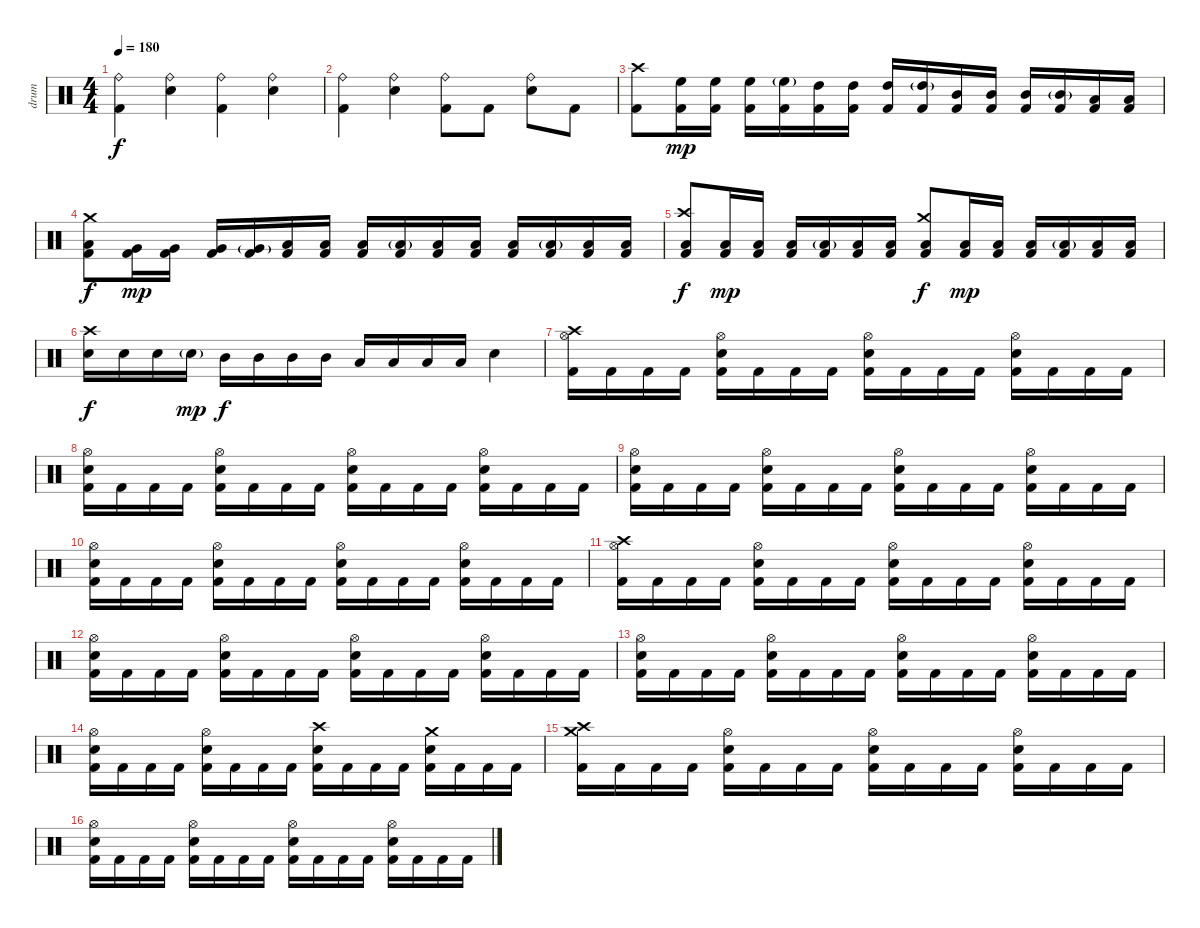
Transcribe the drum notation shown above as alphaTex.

\track ("drum" "drum") {instrument percussion}
\staff {score}
\articulation defaults
\ts (4 4)
\tempo 180
\clef neutral
\ks c
("Ride (bell)" "Kick (hit) 2").4{dy f} ("Ride (bell)" "Electric Snare (hit)").4 ("Ride (bell)" "Kick (hit) 2").4 ("Ride (bell)" "Electric Snare (hit)").4 |
("Ride (bell)" "Kick (hit) 2").4 ("Ride (bell)" "Electric Snare (hit)").4 ("Ride (bell)" "Kick (hit) 2").8 "Kick (hit) 2".8 ("Ride (bell)" "Electric Snare (hit)").8 "Kick (hit) 2".8 |
("Crash high (hit)" "Kick (hit) 2").8 ("High Floor Tom (hit)" "Kick (hit) 2").16{dy mp} ("High Floor Tom (hit)" "Kick (hit) 2").16 ("High Floor Tom (hit)" "Kick (hit) 2").16 ("High Floor Tom (hit)"{g} "Kick (hit) 2").16 ("High Tom (hit)" "Kick (hit) 2").16 ("High Tom (hit)" "Kick (hit) 2").16 ("High Tom (hit)" "Kick (hit) 2").16 ("High Tom (hit)"{g} "Kick (hit) 2").16 ("Mid Tom (hit)" "Kick (hit) 2").16 ("Mid Tom (hit)" "Kick (hit) 2").16 ("Mid Tom (hit)" "Kick (hit) 2").16 ("Mid Tom (hit)"{g} "Kick (hit) 2").16 ("Low Tom (hit)" "Kick (hit) 2").16 ("Low Tom (hit)" "Kick (hit) 2").16 |
("Crash medium (hit)" "Low Tom (hit)" "Kick (hit) 2").8{dy f} ("Very Low Tom (hit)" "Kick (hit) 2").16{dy mp} ("Very Low Tom (hit)" "Kick (hit) 2").16 ("Very Low Tom (hit)" "Kick (hit) 2").16 ("Very Low Tom (hit)"{g} "Kick (hit) 2").16 ("Low Floor Tom (hit)" "Kick (hit) 2").16 ("Low Floor Tom (hit)" "Kick (hit) 2").16 ("Low Floor Tom (hit)" "Kick (hit) 2").16 ("Low Floor Tom (hit)"{g} "Kick (hit) 2").16 ("Low Floor Tom (hit)" "Kick (hit) 2").16 ("Low Floor Tom (hit)" "Kick (hit) 2").16 ("Low Floor Tom (hit)" "Kick (hit) 2").16 ("Low Floor Tom (hit)"{g} "Kick (hit) 2").16 ("Low Floor Tom (hit)" "Kick (hit) 2").16 ("Low Floor Tom (hit)" "Kick (hit) 2").16 |
("Crash high (hit)" "Low Floor Tom (hit)" "Kick (hit) 2").8{dy f} ("Low Floor Tom (hit)" "Kick (hit) 2").16{dy mp} ("Low Floor Tom (hit)" "Kick (hit) 2").16 ("Low Floor Tom (hit)" "Kick (hit) 2").16 ("Low Floor Tom (hit)"{g} "Kick (hit) 2").16 ("Low Floor Tom (hit)" "Kick (hit) 2").16 ("Low Floor Tom (hit)" "Kick (hit) 2").16 ("Crash medium (hit)" "Low Floor Tom (hit)" "Kick (hit) 2").8{dy f} ("Low Floor Tom (hit)" "Kick (hit) 2").16{dy mp} ("Low Floor Tom (hit)" "Kick (hit) 2").16 ("Low Floor Tom (hit)" "Kick (hit) 2").16 ("Low Floor Tom (hit)"{g} "Kick (hit) 2").16 ("Low Floor Tom (hit)" "Kick (hit) 2").16 ("Low Floor Tom (hit)" "Kick (hit) 2").16 |
("Crash high (hit)" "Electric Snare (hit)").16{dy f} "Electric Snare (hit)".16 "Electric Snare (hit)".16 "Electric Snare (hit)"{g}.16{dy mp} "Mid Tom (hit)".16{dy f} "Mid Tom (hit)".16 "Mid Tom (hit)".16 "Mid Tom (hit)".16 "Low Tom (hit)".16 "Low Tom (hit)".16 "Low Tom (hit)".16 "Low Tom (hit)".16 "Electric Snare (hit)".4 |
("Hi-Hat (open)" "Crash high (hit)" "Kick (hit) 2").16 "Kick (hit) 2".16 "Kick (hit) 2".16 "Kick (hit) 2".16 ("Hi-Hat (open)" "Electric Snare (hit)" "Kick (hit) 2").16 "Kick (hit) 2".16 "Kick (hit) 2".16 "Kick (hit) 2".16 ("Hi-Hat (open)" "Electric Snare (hit)" "Kick (hit) 2").16 "Kick (hit) 2".16 "Kick (hit) 2".16 "Kick (hit) 2".16 ("Hi-Hat (open)" "Electric Snare (hit)" "Kick (hit) 2").16 "Kick (hit) 2".16 "Kick (hit) 2".16 "Kick (hit) 2".16 |
("Hi-Hat (open)" "Electric Snare (hit)" "Kick (hit) 2").16 "Kick (hit) 2".16 "Kick (hit) 2".16 "Kick (hit) 2".16 ("Hi-Hat (open)" "Electric Snare (hit)" "Kick (hit) 2").16 "Kick (hit) 2".16 "Kick (hit) 2".16 "Kick (hit) 2".16 ("Hi-Hat (open)" "Electric Snare (hit)" "Kick (hit) 2").16 "Kick (hit) 2".16 "Kick (hit) 2".16 "Kick (hit) 2".16 ("Hi-Hat (open)" "Electric Snare (hit)" "Kick (hit) 2").16 "Kick (hit) 2".16 "Kick (hit) 2".16 "Kick (hit) 2".16 |
("Hi-Hat (open)" "Electric Snare (hit)" "Kick (hit) 2").16 "Kick (hit) 2".16 "Kick (hit) 2".16 "Kick (hit) 2".16 ("Hi-Hat (open)" "Electric Snare (hit)" "Kick (hit) 2").16 "Kick (hit) 2".16 "Kick (hit) 2".16 "Kick (hit) 2".16 ("Hi-Hat (open)" "Electric Snare (hit)" "Kick (hit) 2").16 "Kick (hit) 2".16 "Kick (hit) 2".16 "Kick (hit) 2".16 ("Hi-Hat (open)" "Electric Snare (hit)" "Kick (hit) 2").16 "Kick (hit) 2".16 "Kick (hit) 2".16 "Kick (hit) 2".16 |
("Hi-Hat (open)" "Electric Snare (hit)" "Kick (hit) 2").16 "Kick (hit) 2".16 "Kick (hit) 2".16 "Kick (hit) 2".16 ("Hi-Hat (open)" "Electric Snare (hit)" "Kick (hit) 2").16 "Kick (hit) 2".16 "Kick (hit) 2".16 "Kick (hit) 2".16 ("Hi-Hat (open)" "Electric Snare (hit)" "Kick (hit) 2").16 "Kick (hit) 2".16 "Kick (hit) 2".16 "Kick (hit) 2".16 ("Hi-Hat (open)" "Electric Snare (hit)" "Kick (hit) 2").16 "Kick (hit) 2".16 "Kick (hit) 2".16 "Kick (hit) 2".16 |
("Hi-Hat (open)" "Crash high (hit)" "Kick (hit) 2").16 "Kick (hit) 2".16 "Kick (hit) 2".16 "Kick (hit) 2".16 ("Hi-Hat (open)" "Electric Snare (hit)" "Kick (hit) 2").16 "Kick (hit) 2".16 "Kick (hit) 2".16 "Kick (hit) 2".16 ("Hi-Hat (open)" "Electric Snare (hit)" "Kick (hit) 2").16 "Kick (hit) 2".16 "Kick (hit) 2".16 "Kick (hit) 2".16 ("Hi-Hat (open)" "Electric Snare (hit)" "Kick (hit) 2").16 "Kick (hit) 2".16 "Kick (hit) 2".16 "Kick (hit) 2".16 |
("Hi-Hat (open)" "Electric Snare (hit)" "Kick (hit) 2").16 "Kick (hit) 2".16 "Kick (hit) 2".16 "Kick (hit) 2".16 ("Hi-Hat (open)" "Electric Snare (hit)" "Kick (hit) 2").16 "Kick (hit) 2".16 "Kick (hit) 2".16 "Kick (hit) 2".16 ("Hi-Hat (open)" "Electric Snare (hit)" "Kick (hit) 2").16 "Kick (hit) 2".16 "Kick (hit) 2".16 "Kick (hit) 2".16 ("Hi-Hat (open)" "Electric Snare (hit)" "Kick (hit) 2").16 "Kick (hit) 2".16 "Kick (hit) 2".16 "Kick (hit) 2".16 |
("Hi-Hat (open)" "Electric Snare (hit)" "Kick (hit) 2").16 "Kick (hit) 2".16 "Kick (hit) 2".16 "Kick (hit) 2".16 ("Hi-Hat (open)" "Electric Snare (hit)" "Kick (hit) 2").16 "Kick (hit) 2".16 "Kick (hit) 2".16 "Kick (hit) 2".16 ("Hi-Hat (open)" "Electric Snare (hit)" "Kick (hit) 2").16 "Kick (hit) 2".16 "Kick (hit) 2".16 "Kick (hit) 2".16 ("Hi-Hat (open)" "Electric Snare (hit)" "Kick (hit) 2").16 "Kick (hit) 2".16 "Kick (hit) 2".16 "Kick (hit) 2".16 |
("Hi-Hat (open)" "Electric Snare (hit)" "Kick (hit) 2").16 "Kick (hit) 2".16 "Kick (hit) 2".16 "Kick (hit) 2".16 ("Hi-Hat (open)" "Electric Snare (hit)" "Kick (hit) 2").16 "Kick (hit) 2".16 "Kick (hit) 2".16 "Kick (hit) 2".16 ("Crash high (hit)" "Electric Snare (hit)" "Kick (hit) 2").16 "Kick (hit) 2".16 "Kick (hit) 2".16 "Kick (hit) 2".16 ("Crash medium (hit)" "Electric Snare (hit)" "Kick (hit) 2").16 "Kick (hit) 2".16 "Kick (hit) 2".16 "Kick (hit) 2".16 |
("Crash medium (hit)" "Crash high (hit)" "Kick (hit) 2").16 "Kick (hit) 2".16 "Kick (hit) 2".16 "Kick (hit) 2".16 ("Hi-Hat (open)" "Electric Snare (hit)" "Kick (hit) 2").16 "Kick (hit) 2".16 "Kick (hit) 2".16 "Kick (hit) 2".16 ("Hi-Hat (open)" "Electric Snare (hit)" "Kick (hit) 2").16 "Kick (hit) 2".16 "Kick (hit) 2".16 "Kick (hit) 2".16 ("Hi-Hat (open)" "Electric Snare (hit)" "Kick (hit) 2").16 "Kick (hit) 2".16 "Kick (hit) 2".16 "Kick (hit) 2".16 |
("Hi-Hat (open)" "Electric Snare (hit)" "Kick (hit) 2").16 "Kick (hit) 2".16 "Kick (hit) 2".16 "Kick (hit) 2".16 ("Hi-Hat (open)" "Electric Snare (hit)" "Kick (hit) 2").16 "Kick (hit) 2".16 "Kick (hit) 2".16 "Kick (hit) 2".16 ("Hi-Hat (open)" "Electric Snare (hit)" "Kick (hit) 2").16 "Kick (hit) 2".16 "Kick (hit) 2".16 "Kick (hit) 2".16 ("Hi-Hat (open)" "Electric Snare (hit)" "Kick (hit) 2").16 "Kick (hit) 2".16 "Kick (hit) 2".16 "Kick (hit) 2".16
